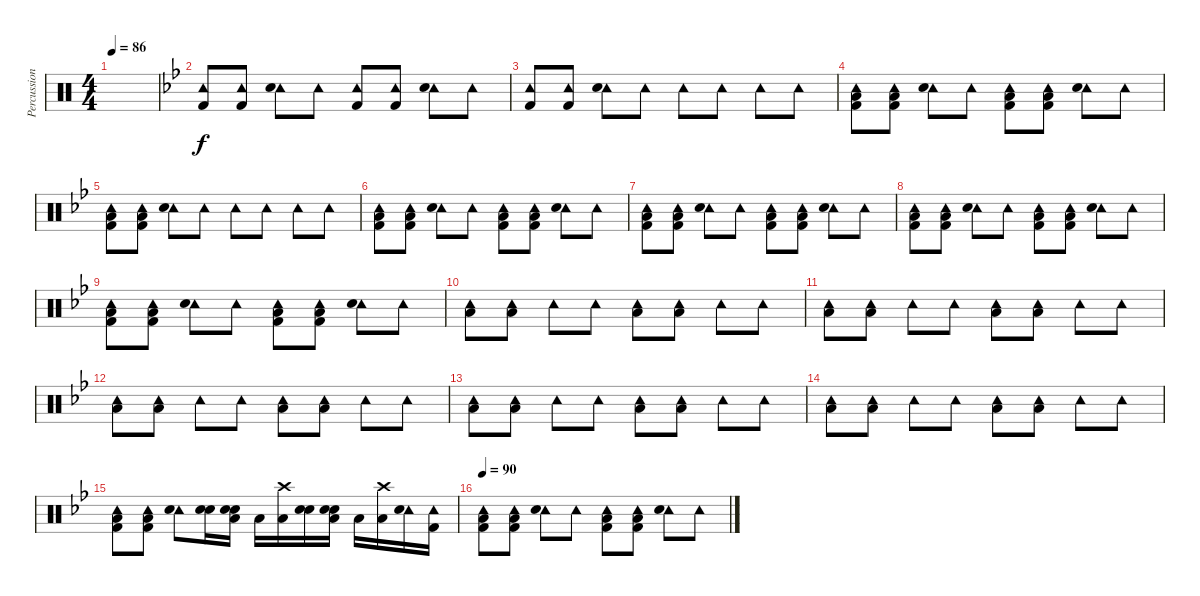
\track ("Percussion" "Percussion") {instrument percussion}
\staff {score}
\articulation defaults
\ts (4 4)
\tempo 86
\clef neutral
\ks c
|
\ks bb
("Tambourine (hit)" "Kick (hit) 2").8 ("Tambourine (hit)" "Kick (hit) 2").8 ("Tambourine (hit)" "Electric Snare (hit)").8 "Tambourine (hit)".8 ("Tambourine (hit)" "Kick (hit) 2").8 ("Tambourine (hit)" "Kick (hit) 2").8 ("Tambourine (hit)" "Electric Snare (hit)").8 "Tambourine (hit)".8 |
("Tambourine (hit)" "Kick (hit) 2").8 ("Tambourine (hit)" "Kick (hit) 2").8 ("Tambourine (hit)" "Electric Snare (hit)").8 "Tambourine (hit)".8 "Tambourine (hit)".8 "Tambourine (hit)".8 "Tambourine (hit)".8 "Tambourine (hit)".8 |
("Tambourine (hit)" "Kick (hit) 2" "Low Tom (hit)").8 ("Tambourine (hit)" "Kick (hit) 2" "Low Tom (hit)").8 ("Tambourine (hit)" "Electric Snare (hit)").8 "Tambourine (hit)".8 ("Tambourine (hit)" "Kick (hit) 2" "Low Tom (hit)").8 ("Tambourine (hit)" "Kick (hit) 2" "Low Tom (hit)").8 ("Tambourine (hit)" "Electric Snare (hit)").8 "Tambourine (hit)".8 |
("Tambourine (hit)" "Kick (hit) 2" "Low Tom (hit)").8 ("Tambourine (hit)" "Kick (hit) 2" "Low Tom (hit)").8 ("Tambourine (hit)" "Electric Snare (hit)").8 "Tambourine (hit)".8 "Tambourine (hit)".8 "Tambourine (hit)".8 "Tambourine (hit)".8 "Tambourine (hit)".8 |
("Tambourine (hit)" "Kick (hit) 2" "Low Tom (hit)").8 ("Tambourine (hit)" "Kick (hit) 2" "Low Tom (hit)").8 ("Tambourine (hit)" "Electric Snare (hit)").8 "Tambourine (hit)".8 ("Tambourine (hit)" "Kick (hit) 2" "Low Tom (hit)").8 ("Tambourine (hit)" "Kick (hit) 2" "Low Tom (hit)").8 ("Tambourine (hit)" "Electric Snare (hit)").8 "Tambourine (hit)".8 |
("Tambourine (hit)" "Kick (hit) 2" "Low Tom (hit)").8 ("Tambourine (hit)" "Kick (hit) 2" "Low Tom (hit)").8 ("Tambourine (hit)" "Electric Snare (hit)").8 "Tambourine (hit)".8 ("Tambourine (hit)" "Kick (hit) 2" "Low Tom (hit)").8 ("Tambourine (hit)" "Kick (hit) 2" "Low Tom (hit)").8 ("Tambourine (hit)" "Electric Snare (hit)").8 "Tambourine (hit)".8 |
("Tambourine (hit)" "Kick (hit) 2" "Low Tom (hit)").8 ("Tambourine (hit)" "Kick (hit) 2" "Low Tom (hit)").8 ("Tambourine (hit)" "Electric Snare (hit)").8 "Tambourine (hit)".8 ("Tambourine (hit)" "Kick (hit) 2" "Low Tom (hit)").8 ("Tambourine (hit)" "Kick (hit) 2" "Low Tom (hit)").8 ("Tambourine (hit)" "Electric Snare (hit)").8 "Tambourine (hit)".8 |
("Tambourine (hit)" "Kick (hit) 2" "Low Tom (hit)").8 ("Tambourine (hit)" "Kick (hit) 2" "Low Tom (hit)").8 ("Tambourine (hit)" "Electric Snare (hit)").8 "Tambourine (hit)".8 ("Tambourine (hit)" "Kick (hit) 2" "Low Tom (hit)").8 ("Tambourine (hit)" "Kick (hit) 2" "Low Tom (hit)").8 ("Tambourine (hit)" "Electric Snare (hit)").8 "Tambourine (hit)".8 |
("Tambourine (hit)" "Low Tom (hit)").8{volume 10} ("Tambourine (hit)" "Low Tom (hit)").8 "Tambourine (hit)".8 "Tambourine (hit)".8 ("Tambourine (hit)" "Low Tom (hit)").8 ("Tambourine (hit)" "Low Tom (hit)").8 "Tambourine (hit)".8 "Tambourine (hit)".8 |
("Tambourine (hit)" "Low Tom (hit)").8 ("Tambourine (hit)" "Low Tom (hit)").8 "Tambourine (hit)".8 "Tambourine (hit)".8 ("Tambourine (hit)" "Low Tom (hit)").8 ("Tambourine (hit)" "Low Tom (hit)").8 "Tambourine (hit)".8 "Tambourine (hit)".8 |
("Tambourine (hit)" "Low Tom (hit)").8{volume 10} ("Tambourine (hit)" "Low Tom (hit)").8 "Tambourine (hit)".8 "Tambourine (hit)".8 ("Tambourine (hit)" "Low Tom (hit)").8 ("Tambourine (hit)" "Low Tom (hit)").8 "Tambourine (hit)".8 "Tambourine (hit)".8 |
("Tambourine (hit)" "Low Tom (hit)").8{volume 10} ("Tambourine (hit)" "Low Tom (hit)").8 "Tambourine (hit)".8 "Tambourine (hit)".8 ("Tambourine (hit)" "Low Tom (hit)").8 ("Tambourine (hit)" "Low Tom (hit)").8 "Tambourine (hit)".8 "Tambourine (hit)".8 |
("Tambourine (hit)" "Low Tom (hit)").8{volume 10} ("Tambourine (hit)" "Low Tom (hit)").8 "Tambourine (hit)".8 "Tambourine (hit)".8 ("Tambourine (hit)" "Low Tom (hit)").8 ("Tambourine (hit)" "Low Tom (hit)").8 "Tambourine (hit)".8 "Tambourine (hit)".8 |
("Tambourine (hit)" "Kick (hit) 2" "Low Tom (hit)").8 ("Tambourine (hit)" "Kick (hit) 2" "Low Tom (hit)").8 ("Tambourine (hit)" "Electric Snare (hit)").8 ("Hand Clap (hit)" "Electric Snare (hit)").16 ("Hand Clap (hit)" "Electric Snare (hit)" "Low Tom (hit)").16 "Low Floor Tom (hit)".16 ("Crash high (hit)" "Low Tom (hit)").16 ("Hand Clap (hit)" "Electric Snare (hit)").16 ("Hand Clap (hit)" "Electric Snare (hit)" "Low Tom (hit)").16 "Low Floor Tom (hit)".16 ("Crash high (hit)" "Low Tom (hit)").16 ("Tambourine (hit)" "Electric Snare (hit)").16 ("Tambourine (hit)" "Kick (hit) 2").16 |
\tempo 90
("Tambourine (hit)" "Kick (hit) 2" "Low Tom (hit)").8{volume 16 balance 8} ("Tambourine (hit)" "Kick (hit) 2" "Low Tom (hit)").8 ("Tambourine (hit)" "Electric Snare (hit)").8 "Tambourine (hit)".8 ("Tambourine (hit)" "Kick (hit) 2" "Low Tom (hit)").8 ("Tambourine (hit)" "Kick (hit) 2" "Low Tom (hit)").8 ("Tambourine (hit)" "Electric Snare (hit)").8 "Tambourine (hit)".8
